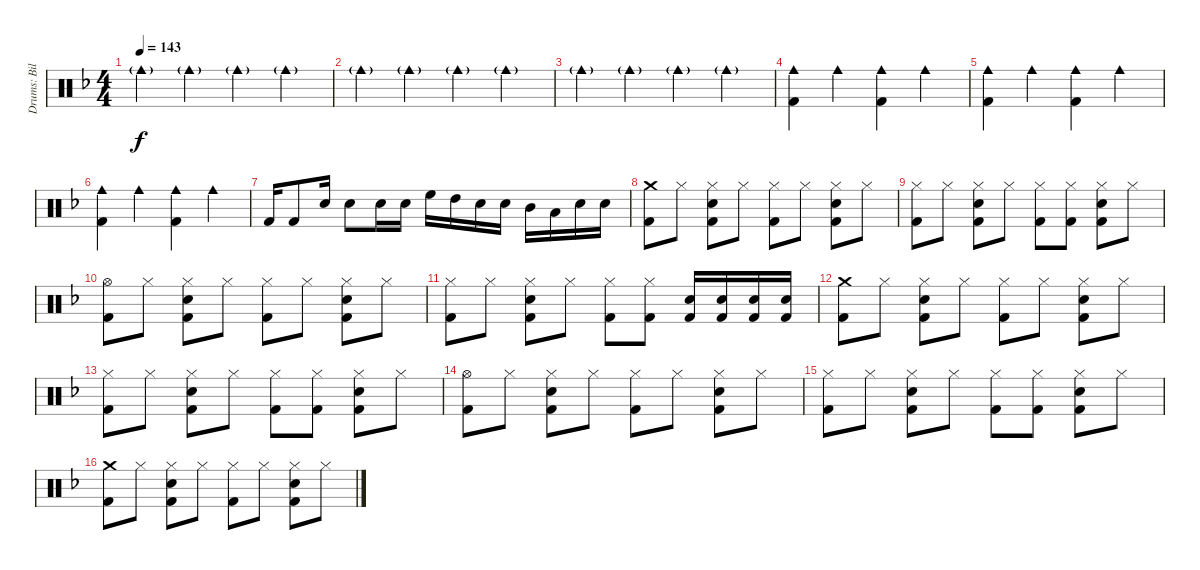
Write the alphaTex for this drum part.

\track ("Drums: Bill" "Drums: Bil") {instrument percussion}
\staff {score}
\articulation defaults
\ts (4 4)
\tempo 143
\clef neutral
\ks f "Cowbell medium (hit)"{g}.4{dy f} "Cowbell medium (hit)"{g}.4 "Cowbell medium (hit)"{g}.4 "Cowbell medium (hit)"{g}.4
|
"Cowbell medium (hit)"{g}.4 "Cowbell medium (hit)"{g}.4 "Cowbell medium (hit)"{g}.4 "Cowbell medium (hit)"{g}.4 |
"Cowbell medium (hit)"{g}.4 "Cowbell medium (hit)"{g}.4 "Cowbell medium (hit)"{g}.4 "Cowbell medium (hit)"{g}.4 |
("Kick (hit) 2" "Cowbell medium (hit)").4 "Cowbell medium (hit)".4 ("Kick (hit) 2" "Cowbell medium (hit)").4 "Cowbell medium (hit)".4 |
("Kick (hit) 2" "Cowbell medium (hit)").4 "Cowbell medium (hit)".4 ("Kick (hit) 2" "Cowbell medium (hit)").4 "Cowbell medium (hit)".4 |
("Kick (hit) 2" "Cowbell medium (hit)").4 "Cowbell medium (hit)".4 ("Kick (hit) 2" "Cowbell medium (hit)").4 "Cowbell medium (hit)".4 |
"Kick (hit) 2".16 "Kick (hit) 2".8 "Electric Snare (hit)".16 "Electric Snare (hit)".8 "Snare (hit) 2".16 "Snare (hit) 2".16 "High Floor Tom (hit)".16 "High Tom (hit)".16 "Snare (hit) 2".16 "Snare (hit) 2".16 "Mid Tom (hit)".16 "Low Tom (hit)".16 "Snare (hit) 2".16 "Snare (hit) 2".16 |
("Crash medium (hit)" "Kick (hit) 2").8 "Hi-Hat (closed)".8 ("Hi-Hat (closed)" "Snare (hit) 2" "Kick (hit) 2").8 "Hi-Hat (closed)".8 ("Hi-Hat (closed)" "Kick (hit) 2").8 "Hi-Hat (closed)".8 ("Hi-Hat (closed)" "Snare (hit) 2" "Kick (hit) 2").8 "Hi-Hat (closed)".8 |
("Hi-Hat (closed)" "Kick (hit) 2").8 "Hi-Hat (closed)".8 ("Hi-Hat (closed)" "Snare (hit) 2" "Kick (hit) 2").8 "Hi-Hat (closed)".8 ("Hi-Hat (closed)" "Kick (hit) 2").8 ("Hi-Hat (closed)" "Kick (hit) 2").8 ("Hi-Hat (closed)" "Snare (hit) 2" "Kick (hit) 2").8 "Hi-Hat (closed)".8 |
("Hi-Hat (open)" "Kick (hit) 2").8 "Hi-Hat (closed)".8 ("Hi-Hat (closed)" "Snare (hit) 2" "Kick (hit) 2").8 "Hi-Hat (closed)".8 ("Hi-Hat (closed)" "Kick (hit) 2").8 "Hi-Hat (closed)".8 ("Hi-Hat (closed)" "Snare (hit) 2" "Kick (hit) 2").8 "Hi-Hat (closed)".8 |
("Hi-Hat (closed)" "Kick (hit) 2").8 "Hi-Hat (closed)".8 ("Hi-Hat (closed)" "Snare (hit) 2" "Kick (hit) 2").8 "Hi-Hat (closed)".8 ("Hi-Hat (closed)" "Kick (hit) 2").8 ("Hi-Hat (closed)" "Kick (hit) 2").8 ("Snare (hit) 2" "Kick (hit) 2").16 ("Snare (hit) 2" "Kick (hit) 2").16 ("Snare (hit) 2" "Kick (hit) 2").16 ("Snare (hit) 2" "Kick (hit) 2").16 |
("Crash medium (hit)" "Kick (hit) 2").8 "Hi-Hat (closed)".8 ("Hi-Hat (closed)" "Snare (hit) 2" "Kick (hit) 2").8 "Hi-Hat (closed)".8 ("Hi-Hat (closed)" "Kick (hit) 2").8 "Hi-Hat (closed)".8 ("Hi-Hat (closed)" "Snare (hit) 2" "Kick (hit) 2").8 "Hi-Hat (closed)".8 |
("Hi-Hat (closed)" "Kick (hit) 2").8 "Hi-Hat (closed)".8 ("Hi-Hat (closed)" "Snare (hit) 2" "Kick (hit) 2").8 "Hi-Hat (closed)".8 ("Hi-Hat (closed)" "Kick (hit) 2").8 ("Hi-Hat (closed)" "Kick (hit) 2").8 ("Hi-Hat (closed)" "Snare (hit) 2" "Kick (hit) 2").8 "Hi-Hat (closed)".8 |
("Hi-Hat (open)" "Kick (hit) 2").8 "Hi-Hat (closed)".8 ("Hi-Hat (closed)" "Snare (hit) 2" "Kick (hit) 2").8 "Hi-Hat (closed)".8 ("Hi-Hat (closed)" "Kick (hit) 2").8 "Hi-Hat (closed)".8 ("Hi-Hat (closed)" "Snare (hit) 2" "Kick (hit) 2").8 "Hi-Hat (closed)".8 |
("Hi-Hat (closed)" "Kick (hit) 2").8 "Hi-Hat (closed)".8 ("Hi-Hat (closed)" "Snare (hit) 2" "Kick (hit) 2").8 "Hi-Hat (closed)".8 ("Hi-Hat (closed)" "Kick (hit) 2").8 ("Hi-Hat (closed)" "Kick (hit) 2").8 ("Hi-Hat (closed)" "Snare (hit) 2" "Kick (hit) 2").8 "Hi-Hat (closed)".8 |
("Crash medium (hit)" "Kick (hit) 2").8 "Hi-Hat (closed)".8 ("Hi-Hat (closed)" "Snare (hit) 2" "Kick (hit) 2").8 "Hi-Hat (closed)".8 ("Hi-Hat (closed)" "Kick (hit) 2").8 "Hi-Hat (closed)".8 ("Hi-Hat (closed)" "Snare (hit) 2" "Kick (hit) 2").8 "Hi-Hat (closed)".8
